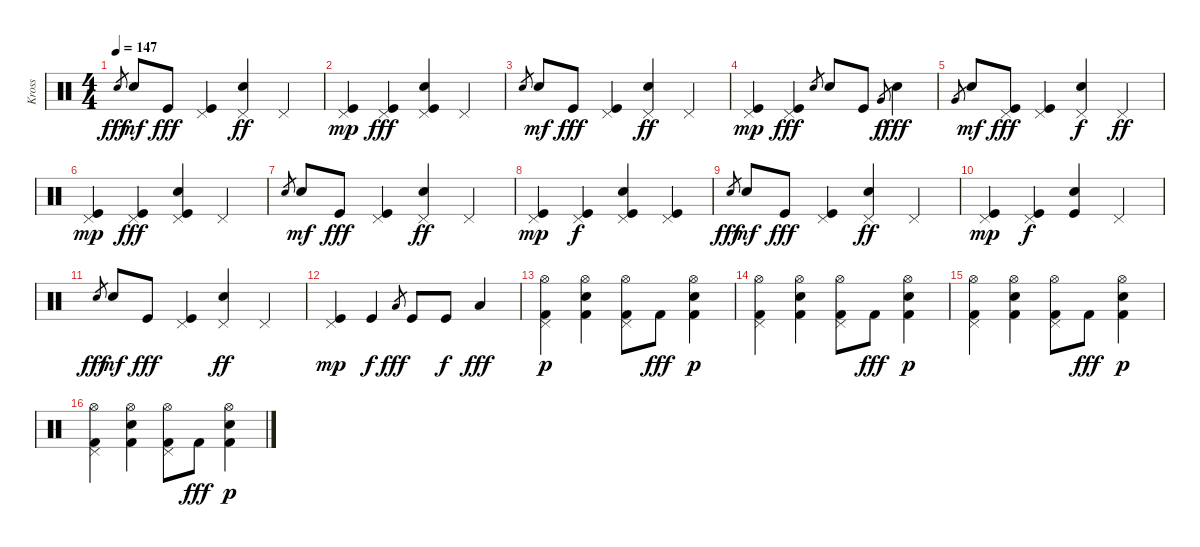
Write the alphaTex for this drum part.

\track ("Kross" "Kross") {instrument percussion}
\staff {score}
\articulation defaults
\ts (4 4)
\tempo 147
\clef neutral
\ks c "Electric Snare (hit)".8{gr dy fff} "Electric Snare (hit)".8{dy mf} "Kick (hit)".8{dy fff}
("Pedal Hi-Hat (hit)" "Kick (hit)").4 ("Snare (hit) 2" "Pedal Hi-Hat (hit)").4{dy ff} "Pedal Hi-Hat (hit)".4 |
("Kick (hit)" "Pedal Hi-Hat (hit)").4{dy mp} ("Kick (hit)" "Pedal Hi-Hat (hit)").4{dy fff} ("Kick (hit)" "Snare (hit) 2" "Pedal Hi-Hat (hit)").4 "Pedal Hi-Hat (hit)".4 |
"Electric Snare (hit)".8{gr} "Electric Snare (hit)".8{dy mf} "Kick (hit)".8{dy fff} ("Pedal Hi-Hat (hit)" "Kick (hit)").4 ("Snare (hit) 2" "Pedal Hi-Hat (hit)").4{dy ff} "Pedal Hi-Hat (hit)".4 |
("Kick (hit)" "Pedal Hi-Hat (hit)").4{dy mp} ("Kick (hit)" "Pedal Hi-Hat (hit)").4{dy fff} "Electric Snare (hit)".8{gr} "Electric Snare (hit)".8 "Kick (hit)".8 "Very Low Tom (hit)".8{gr dy f} "Electric Snare (hit)".4{dy fff} |
"Very Low Tom (hit)".8{gr} "Electric Snare (hit)".8{dy mf} ("Pedal Hi-Hat (hit)" "Kick (hit)").8{dy fff} ("Pedal Hi-Hat (hit)" "Kick (hit)").4 ("Snare (hit) 2" "Pedal Hi-Hat (hit)").4{dy f} "Pedal Hi-Hat (hit)".4{dy ff} |
("Kick (hit)" "Pedal Hi-Hat (hit)").4{dy mp} ("Kick (hit)" "Pedal Hi-Hat (hit)").4{dy fff} ("Kick (hit)" "Snare (hit) 2" "Pedal Hi-Hat (hit)").4 "Pedal Hi-Hat (hit)".4 |
"Electric Snare (hit)".8{gr} "Electric Snare (hit)".8{dy mf} "Kick (hit)".8{dy fff} ("Pedal Hi-Hat (hit)" "Kick (hit)").4 ("Snare (hit) 2" "Pedal Hi-Hat (hit)").4{dy ff} "Pedal Hi-Hat (hit)".4 |
("Kick (hit)" "Pedal Hi-Hat (hit)").4{dy mp} ("Kick (hit)" "Pedal Hi-Hat (hit)").4{dy f} ("Kick (hit)" "Snare (hit) 2" "Pedal Hi-Hat (hit)").4 ("Kick (hit)" "Pedal Hi-Hat (hit)").4 |
"Electric Snare (hit)".8{gr dy fff} "Electric Snare (hit)".8{dy mf} "Kick (hit)".8{dy fff} ("Pedal Hi-Hat (hit)" "Kick (hit)").4 ("Snare (hit) 2" "Pedal Hi-Hat (hit)").4{dy ff} "Pedal Hi-Hat (hit)".4 |
("Kick (hit)" "Pedal Hi-Hat (hit)").4{dy mp} ("Kick (hit)" "Pedal Hi-Hat (hit)").4{dy f} ("Kick (hit)" "Snare (hit) 2").4 "Pedal Hi-Hat (hit)".4 |
"Electric Snare (hit)".8{gr dy fff} "Electric Snare (hit)".8{dy mf} "Kick (hit)".8{dy fff} ("Pedal Hi-Hat (hit)" "Kick (hit)").4 ("Snare (hit) 2" "Pedal Hi-Hat (hit)").4{dy ff} "Pedal Hi-Hat (hit)".4 |
("Kick (hit)" "Pedal Hi-Hat (hit)").4{dy mp} "Kick (hit)".4{dy f} "Low Tom (hit)".8{gr dy fff} "Kick (hit)".8 "Kick (hit)".8{dy f} "Low Tom (hit)".4{dy fff} |
("Kick (hit) 2" "Pedal Hi-Hat (hit)" "Hi-Hat (open)").4{dy p} ("Kick (hit) 2" "Snare (hit) 2" "Hi-Hat (open)").4 ("Kick (hit) 2" "Pedal Hi-Hat (hit)" "Hi-Hat (open)").8 "Kick (hit) 2".8{dy fff} ("Kick (hit) 2" "Snare (hit) 2" "Hi-Hat (open)").4{dy p} |
("Kick (hit) 2" "Pedal Hi-Hat (hit)" "Hi-Hat (open)").4 ("Kick (hit) 2" "Snare (hit) 2" "Hi-Hat (open)").4 ("Kick (hit) 2" "Pedal Hi-Hat (hit)" "Hi-Hat (open)").8 "Kick (hit) 2".8{dy fff} ("Kick (hit) 2" "Snare (hit) 2" "Hi-Hat (open)").4{dy p} |
("Kick (hit) 2" "Pedal Hi-Hat (hit)" "Hi-Hat (open)").4 ("Kick (hit) 2" "Snare (hit) 2" "Hi-Hat (open)").4 ("Kick (hit) 2" "Pedal Hi-Hat (hit)" "Hi-Hat (open)").8 "Kick (hit) 2".8{dy fff} ("Kick (hit) 2" "Snare (hit) 2" "Hi-Hat (open)").4{dy p} |
("Kick (hit) 2" "Pedal Hi-Hat (hit)" "Hi-Hat (open)").4 ("Kick (hit) 2" "Snare (hit) 2" "Hi-Hat (open)").4 ("Kick (hit) 2" "Pedal Hi-Hat (hit)" "Hi-Hat (open)").8 "Kick (hit) 2".8{dy fff} ("Kick (hit) 2" "Snare (hit) 2" "Hi-Hat (open)").4{dy p}
